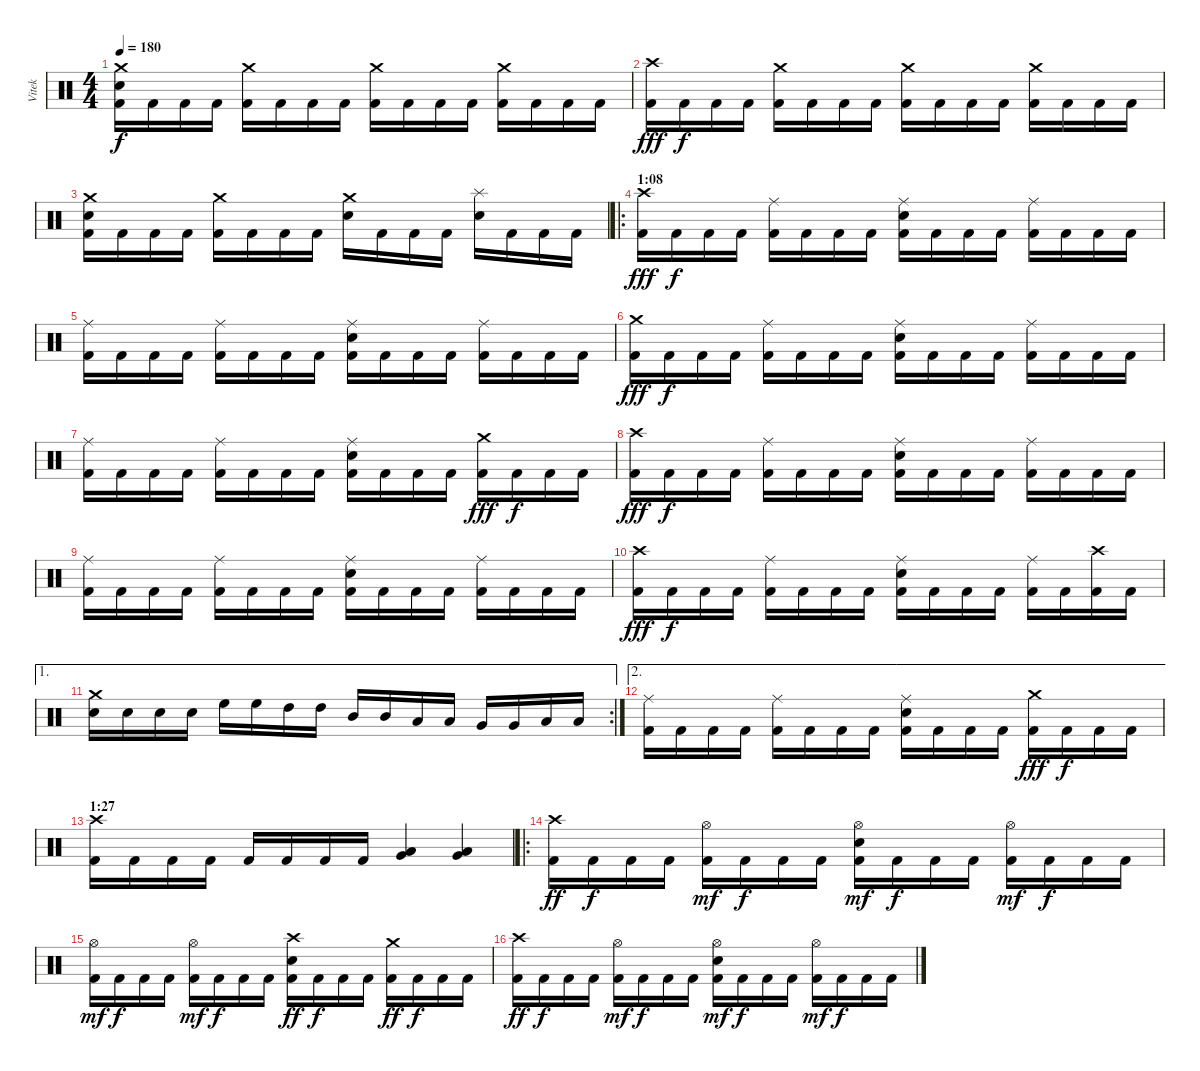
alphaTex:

\track ("Vitek" "Vitek") {instrument percussion}
\staff {score}
\articulation defaults
\ts (4 4)
\tempo 180
\clef neutral
\ks c
("Crash medium (hit)" "Electric Snare (hit)" "Kick (hit) 2").16{dy f} "Kick (hit) 2".16 "Kick (hit) 2".16 "Kick (hit) 2".16 ("Crash medium (hit)" "Kick (hit) 2").16 "Kick (hit) 2".16 "Kick (hit) 2".16 "Kick (hit) 2".16 ("Crash medium (hit)" "Kick (hit) 2").16 "Kick (hit) 2".16 "Kick (hit) 2".16 "Kick (hit) 2".16 ("Crash medium (hit)" "Kick (hit) 2").16 "Kick (hit) 2".16 "Kick (hit) 2".16 "Kick (hit) 2".16 |
("Crash high (hit)" "Kick (hit) 2").16{dy fff} "Kick (hit) 2".16{dy f} "Kick (hit) 2".16 "Kick (hit) 2".16 ("Crash medium (hit)" "Kick (hit) 2").16 "Kick (hit) 2".16 "Kick (hit) 2".16 "Kick (hit) 2".16 ("Crash medium (hit)" "Kick (hit) 2").16 "Kick (hit) 2".16 "Kick (hit) 2".16 "Kick (hit) 2".16 ("Crash medium (hit)" "Kick (hit) 2").16 "Kick (hit) 2".16 "Kick (hit) 2".16 "Kick (hit) 2".16 |
("Crash medium (hit)" "Electric Snare (hit)" "Kick (hit) 2").16 "Kick (hit) 2".16 "Kick (hit) 2".16 "Kick (hit) 2".16 ("Crash medium (hit)" "Kick (hit) 2").16 "Kick (hit) 2".16 "Kick (hit) 2".16 "Kick (hit) 2".16 ("Crash medium (hit)" "Electric Snare (hit)").16 "Kick (hit) 2".16 "Kick (hit) 2".16 "Kick (hit) 2".16 ("Splash (hit)" "Electric Snare (hit)").16 "Kick (hit) 2".16 "Kick (hit) 2".16 "Kick (hit) 2".16 |
\ro
\section ("" "1:08")
("Crash high (hit)" "Kick (hit) 2").16{dy fff} "Kick (hit) 2".16{dy f} "Kick (hit) 2".16 "Kick (hit) 2".16 ("Ride (middle)" "Kick (hit) 2").16 "Kick (hit) 2".16 "Kick (hit) 2".16 "Kick (hit) 2".16 ("Ride (middle)" "Electric Snare (hit)" "Kick (hit) 2").16 "Kick (hit) 2".16 "Kick (hit) 2".16 "Kick (hit) 2".16 ("Ride (middle)" "Kick (hit) 2").16 "Kick (hit) 2".16 "Kick (hit) 2".16 "Kick (hit) 2".16 |
("Ride (middle)" "Kick (hit) 2").16 "Kick (hit) 2".16 "Kick (hit) 2".16 "Kick (hit) 2".16 ("Ride (middle)" "Kick (hit) 2").16 "Kick (hit) 2".16 "Kick (hit) 2".16 "Kick (hit) 2".16 ("Ride (middle)" "Electric Snare (hit)" "Kick (hit) 2").16 "Kick (hit) 2".16 "Kick (hit) 2".16 "Kick (hit) 2".16 ("Ride (middle)" "Kick (hit) 2").16 "Kick (hit) 2".16 "Kick (hit) 2".16 "Kick (hit) 2".16 |
("Crash medium (hit)" "Kick (hit) 2").16{dy fff} "Kick (hit) 2".16{dy f} "Kick (hit) 2".16 "Kick (hit) 2".16 ("Ride (middle)" "Kick (hit) 2").16 "Kick (hit) 2".16 "Kick (hit) 2".16 "Kick (hit) 2".16 ("Ride (middle)" "Electric Snare (hit)" "Kick (hit) 2").16 "Kick (hit) 2".16 "Kick (hit) 2".16 "Kick (hit) 2".16 ("Ride (middle)" "Kick (hit) 2").16 "Kick (hit) 2".16 "Kick (hit) 2".16 "Kick (hit) 2".16 |
("Ride (middle)" "Kick (hit) 2").16 "Kick (hit) 2".16 "Kick (hit) 2".16 "Kick (hit) 2".16 ("Ride (middle)" "Kick (hit) 2").16 "Kick (hit) 2".16 "Kick (hit) 2".16 "Kick (hit) 2".16 ("Ride (middle)" "Electric Snare (hit)" "Kick (hit) 2").16 "Kick (hit) 2".16 "Kick (hit) 2".16 "Kick (hit) 2".16 ("Crash medium (hit)" "Kick (hit) 2").16{dy fff} "Kick (hit) 2".16{dy f} "Kick (hit) 2".16 "Kick (hit) 2".16 |
("Crash high (hit)" "Kick (hit) 2").16{dy fff} "Kick (hit) 2".16{dy f} "Kick (hit) 2".16 "Kick (hit) 2".16 ("Ride (middle)" "Kick (hit) 2").16 "Kick (hit) 2".16 "Kick (hit) 2".16 "Kick (hit) 2".16 ("Ride (middle)" "Electric Snare (hit)" "Kick (hit) 2").16 "Kick (hit) 2".16 "Kick (hit) 2".16 "Kick (hit) 2".16 ("Ride (middle)" "Kick (hit) 2").16 "Kick (hit) 2".16 "Kick (hit) 2".16 "Kick (hit) 2".16 |
("Ride (middle)" "Kick (hit) 2").16 "Kick (hit) 2".16 "Kick (hit) 2".16 "Kick (hit) 2".16 ("Ride (middle)" "Kick (hit) 2").16 "Kick (hit) 2".16 "Kick (hit) 2".16 "Kick (hit) 2".16 ("Ride (middle)" "Electric Snare (hit)" "Kick (hit) 2").16 "Kick (hit) 2".16 "Kick (hit) 2".16 "Kick (hit) 2".16 ("Ride (middle)" "Kick (hit) 2").16 "Kick (hit) 2".16 "Kick (hit) 2".16 "Kick (hit) 2".16 |
("Crash high (hit)" "Kick (hit) 2").16{dy fff} "Kick (hit) 2".16{dy f} "Kick (hit) 2".16 "Kick (hit) 2".16 ("Ride (middle)" "Kick (hit) 2").16 "Kick (hit) 2".16 "Kick (hit) 2".16 "Kick (hit) 2".16 ("Ride (middle)" "Electric Snare (hit)" "Kick (hit) 2").16 "Kick (hit) 2".16 "Kick (hit) 2".16 "Kick (hit) 2".16 ("Ride (middle)" "Kick (hit) 2").16 "Kick (hit) 2".16 ("Crash high (hit)" "Kick (hit) 2").16 "Kick (hit) 2".16 |
\ae 1
\rc 2
("Crash medium (hit)" "Electric Snare (hit)").16 "Electric Snare (hit)".16 "Electric Snare (hit)".16 "Electric Snare (hit)".16 "High Floor Tom (hit)".16 "High Floor Tom (hit)".16 "High Tom (hit)".16 "High Tom (hit)".16 "Mid Tom (hit)".16 "Mid Tom (hit)".16 "Low Tom (hit)".16 "Low Tom (hit)".16 "Very Low Tom (hit)".16 "Very Low Tom (hit)".16 "Low Floor Tom (hit)".16 "Low Floor Tom (hit)".16 |
\ae 2
("Ride (middle)" "Kick (hit) 2").16 "Kick (hit) 2".16 "Kick (hit) 2".16 "Kick (hit) 2".16 ("Ride (middle)" "Kick (hit) 2").16 "Kick (hit) 2".16 "Kick (hit) 2".16 "Kick (hit) 2".16 ("Ride (middle)" "Electric Snare (hit)" "Kick (hit) 2").16 "Kick (hit) 2".16 "Kick (hit) 2".16 "Kick (hit) 2".16 ("Crash medium (hit)" "Kick (hit) 2").16{dy fff} "Kick (hit) 2".16{dy f} "Kick (hit) 2".16 "Kick (hit) 2".16 |
\section ("" "1:27")
("Crash high (hit)" "Kick (hit) 2").16 "Kick (hit) 2".16 "Kick (hit) 2".16 "Kick (hit) 2".16 "Kick (hit) 2".16 "Kick (hit) 2".16 "Kick (hit) 2".16 "Kick (hit) 2".16 ("Low Tom (hit)" "Very Low Tom (hit)").4 ("Very Low Tom (hit)" "Low Floor Tom (hit)").4 |
\ro
("Crash high (hit)" "Kick (hit) 2").16{dy ff} "Kick (hit) 2".16{dy f} "Kick (hit) 2".16 "Kick (hit) 2".16 ("Hi-Hat (open)" "Kick (hit) 2").16{dy mf} "Kick (hit) 2".16{dy f} "Kick (hit) 2".16 "Kick (hit) 2".16 ("Hi-Hat (open)" "Electric Snare (hit)" "Kick (hit) 2").16{dy mf} "Kick (hit) 2".16{dy f} "Kick (hit) 2".16 "Kick (hit) 2".16 ("Hi-Hat (open)" "Kick (hit) 2").16{dy mf} "Kick (hit) 2".16{dy f} "Kick (hit) 2".16 "Kick (hit) 2".16 |
("Hi-Hat (open)" "Kick (hit) 2").16{dy mf} "Kick (hit) 2".16{dy f} "Kick (hit) 2".16 "Kick (hit) 2".16 ("Hi-Hat (open)" "Kick (hit) 2").16{dy mf} "Kick (hit) 2".16{dy f} "Kick (hit) 2".16 "Kick (hit) 2".16 ("Crash high (hit)" "Electric Snare (hit)" "Kick (hit) 2").16{dy ff} "Kick (hit) 2".16{dy f} "Kick (hit) 2".16 "Kick (hit) 2".16 ("Crash medium (hit)" "Kick (hit) 2").16{dy ff} "Kick (hit) 2".16{dy f} "Kick (hit) 2".16 "Kick (hit) 2".16 |
("Crash high (hit)" "Kick (hit) 2").16{dy ff} "Kick (hit) 2".16{dy f} "Kick (hit) 2".16 "Kick (hit) 2".16 ("Hi-Hat (open)" "Kick (hit) 2").16{dy mf} "Kick (hit) 2".16{dy f} "Kick (hit) 2".16 "Kick (hit) 2".16 ("Hi-Hat (open)" "Electric Snare (hit)" "Kick (hit) 2").16{dy mf} "Kick (hit) 2".16{dy f} "Kick (hit) 2".16 "Kick (hit) 2".16 ("Hi-Hat (open)" "Kick (hit) 2").16{dy mf} "Kick (hit) 2".16{dy f} "Kick (hit) 2".16 "Kick (hit) 2".16
